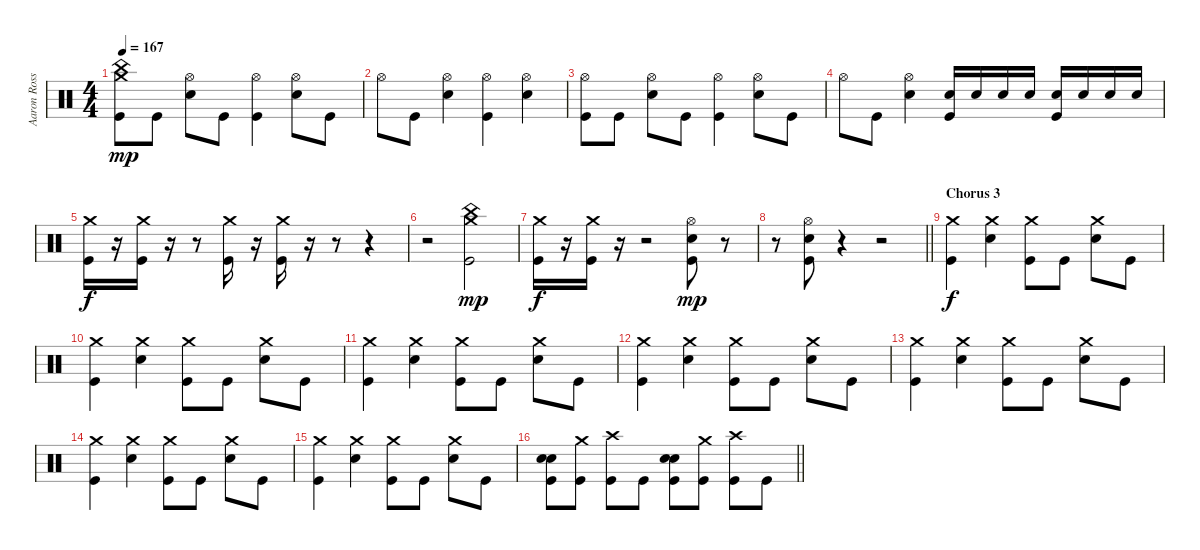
\track ("Aaron Rossi (Drums)" "Aaron Ross") {instrument percussion}
\staff {score}
\articulation defaults
\ts (4 4)
\tempo 167
\clef neutral
\ks c
("China (hit)" "Crash medium (hit)" "Kick (hit)").8{dy mp} "Kick (hit)".8 ("Snare (hit) 2" "Hi-Hat (open)").8 "Kick (hit)".8 ("Hi-Hat (open)" "Kick (hit)").4 ("Snare (hit) 2" "Hi-Hat (open)").8 "Kick (hit)".8 |
"Hi-Hat (open)".8 "Kick (hit)".8 ("Snare (hit) 2" "Hi-Hat (open)").4 ("Hi-Hat (open)" "Kick (hit)").4 ("Snare (hit) 2" "Hi-Hat (open)").4 |
("Hi-Hat (open)" "Kick (hit)").8 "Kick (hit)".8 ("Snare (hit) 2" "Hi-Hat (open)").8 "Kick (hit)".8 ("Hi-Hat (open)" "Kick (hit)").4 ("Snare (hit) 2" "Hi-Hat (open)").8 "Kick (hit)".8 |
"Hi-Hat (open)".8 "Kick (hit)".8 ("Snare (hit) 2" "Hi-Hat (open)").4 ("Snare (hit) 2" "Kick (hit)").16 "Snare (hit) 2".16 "Snare (hit) 2".16 "Snare (hit) 2".16 ("Snare (hit) 2" "Kick (hit)").16 "Snare (hit) 2".16 "Snare (hit) 2".16 "Snare (hit) 2".16 |
("Crash medium (hit)" "Kick (hit)").16{dy f} r.16 ("Crash medium (hit)" "Kick (hit)").16 r.16 r.8 ("Crash medium (hit)" "Kick (hit)").16 r.16 ("Crash medium (hit)" "Kick (hit)").16 r.16 r.8 r.4 |
r.2 ("China (hit)" "Crash medium (hit)" "Kick (hit)").2{dy mp} |
("Crash medium (hit)" "Kick (hit)").16{dy f} r.16 ("Crash medium (hit)" "Kick (hit)").16 r.16 r.2 ("Snare (hit) 2" "Hi-Hat (open)" "Kick (hit)").8{dy mp} r.8 |
\barLineRight lightlight
r.8 ("Snare (hit) 2" "Hi-Hat (open)" "Kick (hit)").8 r.4 r.2 |
\section ("" "Chorus 3")
("Crash medium (hit)" "Kick (hit)").4{dy f} ("Crash medium (hit)" "Snare (hit) 2").4 ("Crash medium (hit)" "Kick (hit)").8 "Kick (hit)".8 ("Crash medium (hit)" "Snare (hit) 2").8 "Kick (hit)".8 |
("Crash medium (hit)" "Kick (hit)").4 ("Crash medium (hit)" "Snare (hit) 2").4 ("Crash medium (hit)" "Kick (hit)").8 "Kick (hit)".8 ("Crash medium (hit)" "Snare (hit) 2").8 "Kick (hit)".8 |
("Crash medium (hit)" "Kick (hit)").4 ("Crash medium (hit)" "Snare (hit) 2").4 ("Crash medium (hit)" "Kick (hit)").8 "Kick (hit)".8 ("Crash medium (hit)" "Snare (hit) 2").8 "Kick (hit)".8 |
("Crash medium (hit)" "Kick (hit)").4 ("Crash medium (hit)" "Snare (hit) 2").4 ("Crash medium (hit)" "Kick (hit)").8 "Kick (hit)".8 ("Crash medium (hit)" "Snare (hit) 2").8 "Kick (hit)".8 |
("Crash medium (hit)" "Kick (hit)").4 ("Crash medium (hit)" "Snare (hit) 2").4 ("Crash medium (hit)" "Kick (hit)").8 "Kick (hit)".8 ("Crash medium (hit)" "Snare (hit) 2").8 "Kick (hit)".8 |
("Crash medium (hit)" "Kick (hit)").4 ("Crash medium (hit)" "Snare (hit) 2").4 ("Crash medium (hit)" "Kick (hit)").8 "Kick (hit)".8 ("Crash medium (hit)" "Snare (hit) 2").8 "Kick (hit)".8 |
("Crash medium (hit)" "Kick (hit)").4 ("Crash medium (hit)" "Snare (hit) 2").4 ("Crash medium (hit)" "Kick (hit)").8 "Kick (hit)".8 ("Crash medium (hit)" "Snare (hit) 2").8 "Kick (hit)".8 |
\barLineRight lightlight
("Snare (hit) 2" "Snare (hit) 2" "Kick (hit)").8 ("Crash medium (hit)" "Kick (hit)").8 ("Crash high (hit)" "Kick (hit)").8 "Kick (hit)".8 ("Snare (hit) 2" "Snare (hit) 2" "Kick (hit)").8 ("Crash medium (hit)" "Kick (hit)").8 ("Crash high (hit)" "Kick (hit)").8 "Kick (hit)".8
